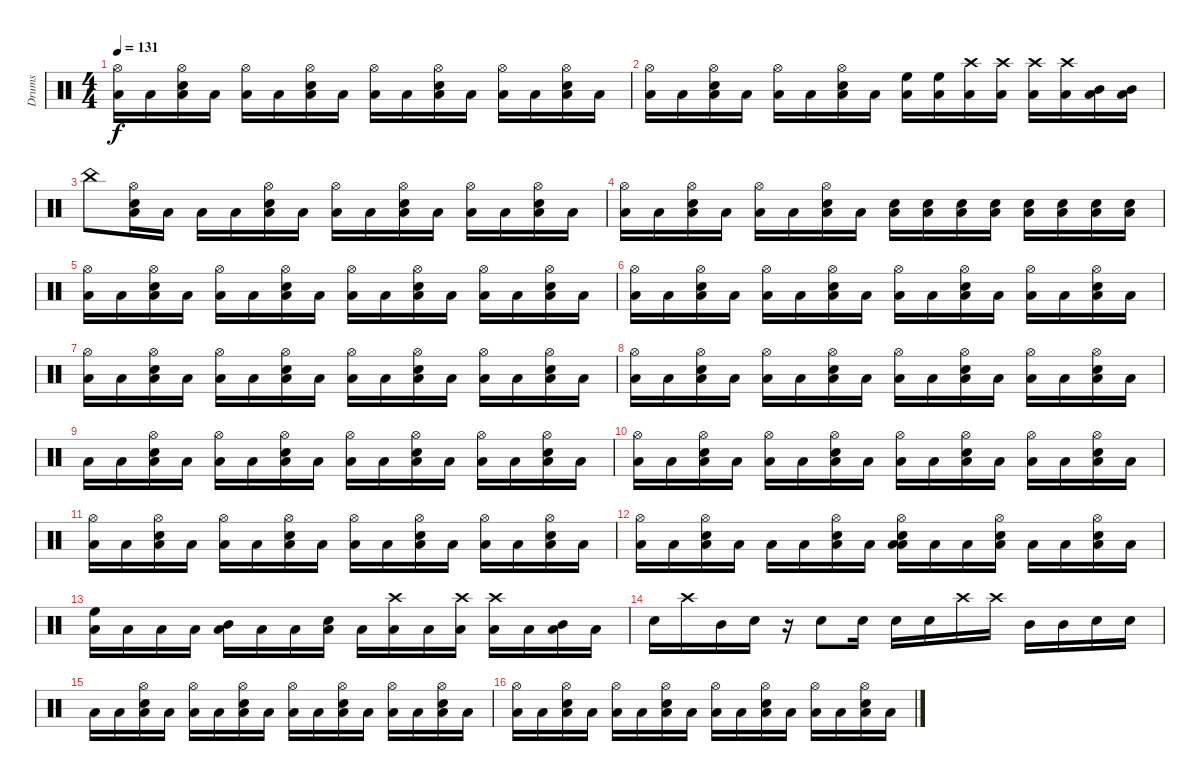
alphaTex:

\track ("Drums" "Drums") {instrument percussion}
\staff {score}
\articulation defaults
\ts (4 4)
\tempo 131
\clef neutral
\ks c
("Hi-Hat (open)" "Low Tom (hit)").16{dy f} "Low Tom (hit)".16 ("Hi-Hat (open)" "Low Tom (hit)" "Electric Snare (hit)").16 "Low Tom (hit)".16 ("Hi-Hat (open)" "Low Tom (hit)").16 "Low Tom (hit)".16 ("Hi-Hat (open)" "Low Tom (hit)" "Electric Snare (hit)").16 "Low Tom (hit)".16 ("Hi-Hat (open)" "Low Tom (hit)").16 "Low Tom (hit)".16 ("Hi-Hat (open)" "Low Tom (hit)" "Electric Snare (hit)").16 "Low Tom (hit)".16 ("Hi-Hat (open)" "Low Tom (hit)").16 "Low Tom (hit)".16 ("Hi-Hat (open)" "Low Tom (hit)" "Electric Snare (hit)").16 "Low Tom (hit)".16 |
("Hi-Hat (open)" "Low Tom (hit)").16 "Low Tom (hit)".16 ("Hi-Hat (open)" "Low Tom (hit)" "Electric Snare (hit)").16 "Low Tom (hit)".16 ("Hi-Hat (open)" "Low Tom (hit)").16 "Low Tom (hit)".16 ("Hi-Hat (open)" "Low Tom (hit)" "Electric Snare (hit)").16 "Low Tom (hit)".16 ("Low Tom (hit)" "High Floor Tom (hit)").16 ("Low Tom (hit)" "High Floor Tom (hit)").16 ("Low Tom (hit)" "Crash high (hit)").16 ("Low Tom (hit)" "Crash high (hit)").16 ("Low Tom (hit)" "Crash high (hit)").16 ("Low Tom (hit)" "Crash high (hit)").16 ("Low Tom (hit)" "Mid Tom (hit)").16 ("Low Tom (hit)" "Mid Tom (hit)").16 |
"China (hit)".8 ("Electric Snare (hit)" "Low Tom (hit)" "Hi-Hat (open)").16 "Low Tom (hit)".16 "Low Tom (hit)".16 "Low Tom (hit)".16 ("Electric Snare (hit)" "Low Tom (hit)" "Hi-Hat (open)").16 "Low Tom (hit)".16 ("Low Tom (hit)" "Hi-Hat (open)").16 "Low Tom (hit)".16 ("Electric Snare (hit)" "Low Tom (hit)" "Hi-Hat (open)").16 "Low Tom (hit)".16 ("Low Tom (hit)" "Hi-Hat (open)").16 "Low Tom (hit)".16 ("Electric Snare (hit)" "Low Tom (hit)" "Hi-Hat (open)").16 "Low Tom (hit)".16 |
("Low Tom (hit)" "Hi-Hat (open)").16 "Low Tom (hit)".16 ("Electric Snare (hit)" "Low Tom (hit)" "Hi-Hat (open)").16 "Low Tom (hit)".16 ("Low Tom (hit)" "Hi-Hat (open)").16 "Low Tom (hit)".16 ("Electric Snare (hit)" "Low Tom (hit)" "Hi-Hat (open)").16 "Low Tom (hit)".16 ("Electric Snare (hit)" "Low Tom (hit)").16 ("Electric Snare (hit)" "Low Tom (hit)").16 ("Electric Snare (hit)" "Low Tom (hit)").16 ("Electric Snare (hit)" "Low Tom (hit)").16 ("Electric Snare (hit)" "Low Tom (hit)").16 ("Electric Snare (hit)" "Low Tom (hit)").16 ("Electric Snare (hit)" "Low Tom (hit)").16 ("Electric Snare (hit)" "Low Tom (hit)").16 |
("Low Tom (hit)" "Hi-Hat (open)").16 "Low Tom (hit)".16 ("Electric Snare (hit)" "Low Tom (hit)" "Hi-Hat (open)").16 "Low Tom (hit)".16 ("Low Tom (hit)" "Hi-Hat (open)").16 "Low Tom (hit)".16 ("Electric Snare (hit)" "Low Tom (hit)" "Hi-Hat (open)").16 "Low Tom (hit)".16 ("Low Tom (hit)" "Hi-Hat (open)").16 "Low Tom (hit)".16 ("Electric Snare (hit)" "Low Tom (hit)" "Hi-Hat (open)").16 "Low Tom (hit)".16 ("Low Tom (hit)" "Hi-Hat (open)").16 "Low Tom (hit)".16 ("Electric Snare (hit)" "Low Tom (hit)" "Hi-Hat (open)").16 "Low Tom (hit)".16 |
("Low Tom (hit)" "Hi-Hat (open)").16 "Low Tom (hit)".16 ("Electric Snare (hit)" "Low Tom (hit)" "Hi-Hat (open)").16 "Low Tom (hit)".16 ("Low Tom (hit)" "Hi-Hat (open)").16 "Low Tom (hit)".16 ("Electric Snare (hit)" "Low Tom (hit)" "Hi-Hat (open)").16 "Low Tom (hit)".16 ("Low Tom (hit)" "Hi-Hat (open)").16 "Low Tom (hit)".16 ("Electric Snare (hit)" "Low Tom (hit)" "Hi-Hat (open)").16 "Low Tom (hit)".16 ("Low Tom (hit)" "Hi-Hat (open)").16 "Low Tom (hit)".16 ("Electric Snare (hit)" "Low Tom (hit)" "Hi-Hat (open)").16 "Low Tom (hit)".16 |
("Low Tom (hit)" "Hi-Hat (open)").16 "Low Tom (hit)".16 ("Electric Snare (hit)" "Low Tom (hit)" "Hi-Hat (open)").16 "Low Tom (hit)".16 ("Low Tom (hit)" "Hi-Hat (open)").16 "Low Tom (hit)".16 ("Electric Snare (hit)" "Low Tom (hit)" "Hi-Hat (open)").16 "Low Tom (hit)".16 ("Low Tom (hit)" "Hi-Hat (open)").16 "Low Tom (hit)".16 ("Electric Snare (hit)" "Low Tom (hit)" "Hi-Hat (open)").16 "Low Tom (hit)".16 ("Low Tom (hit)" "Hi-Hat (open)").16 "Low Tom (hit)".16 ("Electric Snare (hit)" "Low Tom (hit)" "Hi-Hat (open)").16 "Low Tom (hit)".16 |
("Low Tom (hit)" "Hi-Hat (open)").16 "Low Tom (hit)".16 ("Electric Snare (hit)" "Low Tom (hit)" "Hi-Hat (open)").16 "Low Tom (hit)".16 ("Low Tom (hit)" "Hi-Hat (open)").16 "Low Tom (hit)".16 ("Electric Snare (hit)" "Low Tom (hit)" "Hi-Hat (open)").16 "Low Tom (hit)".16 ("Low Tom (hit)" "Hi-Hat (open)").16 "Low Tom (hit)".16 ("Electric Snare (hit)" "Low Tom (hit)" "Hi-Hat (open)").16 "Low Tom (hit)".16 ("Low Tom (hit)" "Hi-Hat (open)").16 "Low Tom (hit)".16 ("Electric Snare (hit)" "Low Tom (hit)" "Hi-Hat (open)").16 "Low Tom (hit)".16 |
"Low Tom (hit)".16 "Low Tom (hit)".16 ("Electric Snare (hit)" "Low Tom (hit)" "Hi-Hat (open)").16 "Low Tom (hit)".16 ("Low Tom (hit)" "Hi-Hat (open)").16 "Low Tom (hit)".16 ("Electric Snare (hit)" "Low Tom (hit)" "Hi-Hat (open)").16 "Low Tom (hit)".16 ("Low Tom (hit)" "Hi-Hat (open)").16 "Low Tom (hit)".16 ("Electric Snare (hit)" "Low Tom (hit)" "Hi-Hat (open)").16 "Low Tom (hit)".16 ("Low Tom (hit)" "Hi-Hat (open)").16 "Low Tom (hit)".16 ("Electric Snare (hit)" "Low Tom (hit)" "Hi-Hat (open)").16 "Low Tom (hit)".16 |
("Low Tom (hit)" "Hi-Hat (open)").16 "Low Tom (hit)".16 ("Electric Snare (hit)" "Low Tom (hit)" "Hi-Hat (open)").16 "Low Tom (hit)".16 ("Low Tom (hit)" "Hi-Hat (open)").16 "Low Tom (hit)".16 ("Electric Snare (hit)" "Low Tom (hit)" "Hi-Hat (open)").16 "Low Tom (hit)".16 ("Low Tom (hit)" "Hi-Hat (open)").16 "Low Tom (hit)".16 ("Electric Snare (hit)" "Low Tom (hit)" "Hi-Hat (open)").16 "Low Tom (hit)".16 ("Low Tom (hit)" "Hi-Hat (open)").16 "Low Tom (hit)".16 ("Electric Snare (hit)" "Low Tom (hit)" "Hi-Hat (open)").16 "Low Tom (hit)".16 |
("Low Tom (hit)" "Hi-Hat (open)").16 "Low Tom (hit)".16 ("Electric Snare (hit)" "Low Tom (hit)" "Hi-Hat (open)").16 "Low Tom (hit)".16 ("Low Tom (hit)" "Hi-Hat (open)").16 "Low Tom (hit)".16 ("Electric Snare (hit)" "Low Tom (hit)" "Hi-Hat (open)").16 "Low Tom (hit)".16 ("Low Tom (hit)" "Hi-Hat (open)").16 "Low Tom (hit)".16 ("Electric Snare (hit)" "Low Tom (hit)" "Hi-Hat (open)").16 "Low Tom (hit)".16 ("Low Tom (hit)" "Hi-Hat (open)").16 "Low Tom (hit)".16 ("Electric Snare (hit)" "Low Tom (hit)" "Hi-Hat (open)").16 "Low Tom (hit)".16 |
("Low Tom (hit)" "Hi-Hat (open)").16 "Low Tom (hit)".16 ("Low Tom (hit)" "Electric Snare (hit)" "Hi-Hat (open)").16 "Low Tom (hit)".16 "Low Tom (hit)".16 "Low Tom (hit)".16 ("Low Tom (hit)" "Electric Snare (hit)" "Hi-Hat (open)").16 "Low Tom (hit)".16 ("Low Tom (hit)" "Electric Snare (hit)" "Low Tom (hit)" "Hi-Hat (open)").16 "Low Tom (hit)".16 "Low Tom (hit)".16 ("Low Tom (hit)" "Electric Snare (hit)" "Hi-Hat (open)").16 "Low Tom (hit)".16 "Low Tom (hit)".16 ("Low Tom (hit)" "Electric Snare (hit)" "Hi-Hat (open)").16 "Low Tom (hit)".16 |
("Low Tom (hit)" "High Floor Tom (hit)").16 "Low Tom (hit)".16 "Low Tom (hit)".16 "Low Tom (hit)".16 ("Low Tom (hit)" "Mid Tom (hit)").16 "Low Tom (hit)".16 "Low Tom (hit)".16 ("Low Tom (hit)" "Electric Snare (hit)").16 "Low Tom (hit)".16 ("Low Tom (hit)" "Crash high (hit)").16 "Low Tom (hit)".16 ("Low Tom (hit)" "Crash high (hit)").16 ("Low Tom (hit)" "Crash high (hit)").16 "Low Tom (hit)".16 ("Low Tom (hit)" "Mid Tom (hit)").16 "Low Tom (hit)".16 |
"Electric Snare (hit)".16 "Crash high (hit)".16 "Mid Tom (hit)".16 "Electric Snare (hit)".16 r.16 "Electric Snare (hit)".8 "Electric Snare (hit)".16 "Electric Snare (hit)".16 "Electric Snare (hit)".16 "Crash high (hit)".16 "Crash high (hit)".16 "Mid Tom (hit)".16 "Mid Tom (hit)".16 "Electric Snare (hit)".16 "Electric Snare (hit)".16 |
"Low Tom (hit)".16 "Low Tom (hit)".16 ("Low Tom (hit)" "Electric Snare (hit)" "Hi-Hat (open)").16 "Low Tom (hit)".16 ("Low Tom (hit)" "Hi-Hat (open)").16 "Low Tom (hit)".16 ("Low Tom (hit)" "Electric Snare (hit)" "Hi-Hat (open)").16 "Low Tom (hit)".16 ("Low Tom (hit)" "Hi-Hat (open)").16 "Low Tom (hit)".16 ("Low Tom (hit)" "Electric Snare (hit)" "Hi-Hat (open)").16 "Low Tom (hit)".16 ("Low Tom (hit)" "Hi-Hat (open)").16 "Low Tom (hit)".16 ("Low Tom (hit)" "Electric Snare (hit)" "Hi-Hat (open)").16 "Low Tom (hit)".16 |
("Low Tom (hit)" "Hi-Hat (open)").16 "Low Tom (hit)".16 ("Low Tom (hit)" "Electric Snare (hit)" "Hi-Hat (open)").16 "Low Tom (hit)".16 ("Low Tom (hit)" "Hi-Hat (open)").16 "Low Tom (hit)".16 ("Low Tom (hit)" "Electric Snare (hit)" "Hi-Hat (open)").16 "Low Tom (hit)".16 ("Low Tom (hit)" "Hi-Hat (open)").16 "Low Tom (hit)".16 ("Low Tom (hit)" "Electric Snare (hit)" "Hi-Hat (open)").16 "Low Tom (hit)".16 ("Low Tom (hit)" "Hi-Hat (open)").16 "Low Tom (hit)".16 ("Low Tom (hit)" "Electric Snare (hit)" "Hi-Hat (open)").16 "Low Tom (hit)".16
